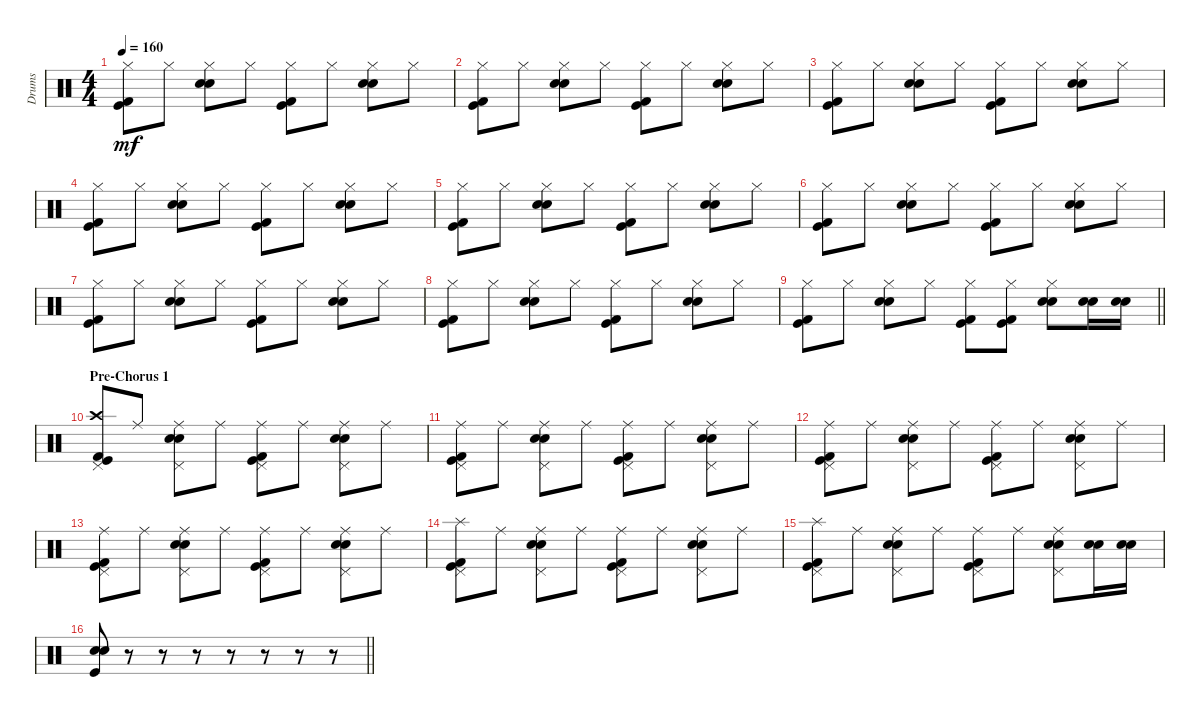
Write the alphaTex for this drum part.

\track ("Drums" "Drums") {instrument percussion}
\staff {score}
\articulation defaults
\ts (4 4)
\tempo 160
\clef neutral
\ks c
("Hi-Hat (closed)" "Kick (hit) 2" "Kick (hit)").8{dy mf} "Hi-Hat (closed)".8 ("Hi-Hat (closed)" "Snare (hit) 2" "Electric Snare (hit)").8 "Hi-Hat (closed)".8 ("Hi-Hat (closed)" "Kick (hit) 2" "Kick (hit)").8 "Hi-Hat (closed)".8 ("Hi-Hat (closed)" "Snare (hit) 2" "Electric Snare (hit)").8 "Hi-Hat (closed)".8 |
("Hi-Hat (closed)" "Kick (hit) 2" "Kick (hit)").8 "Hi-Hat (closed)".8 ("Hi-Hat (closed)" "Snare (hit) 2" "Electric Snare (hit)").8 "Hi-Hat (closed)".8 ("Hi-Hat (closed)" "Kick (hit) 2" "Kick (hit)").8 "Hi-Hat (closed)".8 ("Hi-Hat (closed)" "Snare (hit) 2" "Electric Snare (hit)").8 "Hi-Hat (closed)".8 |
("Hi-Hat (closed)" "Kick (hit) 2" "Kick (hit)").8 "Hi-Hat (closed)".8 ("Hi-Hat (closed)" "Snare (hit) 2" "Electric Snare (hit)").8 "Hi-Hat (closed)".8 ("Hi-Hat (closed)" "Kick (hit) 2" "Kick (hit)").8 "Hi-Hat (closed)".8 ("Hi-Hat (closed)" "Snare (hit) 2" "Electric Snare (hit)").8 "Hi-Hat (closed)".8 |
("Hi-Hat (closed)" "Kick (hit) 2" "Kick (hit)").8 "Hi-Hat (closed)".8 ("Hi-Hat (closed)" "Snare (hit) 2" "Electric Snare (hit)").8 "Hi-Hat (closed)".8 ("Hi-Hat (closed)" "Kick (hit) 2" "Kick (hit)").8 "Hi-Hat (closed)".8 ("Hi-Hat (closed)" "Snare (hit) 2" "Electric Snare (hit)").8 "Hi-Hat (closed)".8 |
("Hi-Hat (closed)" "Kick (hit) 2" "Kick (hit)").8 "Hi-Hat (closed)".8 ("Hi-Hat (closed)" "Snare (hit) 2" "Electric Snare (hit)").8 "Hi-Hat (closed)".8 ("Hi-Hat (closed)" "Kick (hit) 2" "Kick (hit)").8 "Hi-Hat (closed)".8 ("Hi-Hat (closed)" "Snare (hit) 2" "Electric Snare (hit)").8 "Hi-Hat (closed)".8 |
("Hi-Hat (closed)" "Kick (hit) 2" "Kick (hit)").8 "Hi-Hat (closed)".8 ("Hi-Hat (closed)" "Snare (hit) 2" "Electric Snare (hit)").8 "Hi-Hat (closed)".8 ("Hi-Hat (closed)" "Kick (hit) 2" "Kick (hit)").8 "Hi-Hat (closed)".8 ("Hi-Hat (closed)" "Snare (hit) 2" "Electric Snare (hit)").8 "Hi-Hat (closed)".8 |
("Hi-Hat (closed)" "Kick (hit) 2" "Kick (hit)").8 "Hi-Hat (closed)".8 ("Hi-Hat (closed)" "Snare (hit) 2" "Electric Snare (hit)").8 "Hi-Hat (closed)".8 ("Hi-Hat (closed)" "Kick (hit) 2" "Kick (hit)").8 "Hi-Hat (closed)".8 ("Hi-Hat (closed)" "Snare (hit) 2" "Electric Snare (hit)").8 "Hi-Hat (closed)".8 |
("Hi-Hat (closed)" "Kick (hit) 2" "Kick (hit)").8 "Hi-Hat (closed)".8 ("Hi-Hat (closed)" "Snare (hit) 2" "Electric Snare (hit)").8 "Hi-Hat (closed)".8 ("Hi-Hat (closed)" "Kick (hit) 2" "Kick (hit)").8 "Hi-Hat (closed)".8 ("Hi-Hat (closed)" "Snare (hit) 2" "Electric Snare (hit)").8 "Hi-Hat (closed)".8 |
\barLineRight lightlight
("Hi-Hat (closed)" "Kick (hit) 2" "Kick (hit)").8 "Hi-Hat (closed)".8 ("Hi-Hat (closed)" "Snare (hit) 2" "Electric Snare (hit)").8 "Hi-Hat (closed)".8 ("Hi-Hat (closed)" "Kick (hit) 2" "Kick (hit)").8 ("Hi-Hat (closed)" "Kick (hit) 2" "Kick (hit)").8 ("Hi-Hat (closed)" "Snare (hit) 2" "Electric Snare (hit)").8 ("Snare (hit) 2" "Electric Snare (hit)").16 ("Snare (hit) 2" "Electric Snare (hit)").16 |
\section ("" "Pre-Chorus 1")
("Crash high (hit)" "Pedal Hi-Hat (hit)" "Kick (hit) 2" "Kick (hit)").8 "Ride (middle)".8 ("Ride (middle)" "Pedal Hi-Hat (hit)" "Snare (hit) 2" "Electric Snare (hit)").8 "Ride (middle)".8 ("Ride (middle)" "Pedal Hi-Hat (hit)" "Kick (hit) 2" "Kick (hit)").8 "Ride (middle)".8 ("Ride (middle)" "Pedal Hi-Hat (hit)" "Snare (hit) 2" "Electric Snare (hit)").8 "Ride (middle)".8 |
("Ride (middle)" "Pedal Hi-Hat (hit)" "Kick (hit) 2" "Kick (hit)").8 "Ride (middle)".8 ("Ride (middle)" "Pedal Hi-Hat (hit)" "Snare (hit) 2" "Electric Snare (hit)").8 "Ride (middle)".8 ("Ride (middle)" "Pedal Hi-Hat (hit)" "Kick (hit) 2" "Kick (hit)").8 "Ride (middle)".8 ("Ride (middle)" "Pedal Hi-Hat (hit)" "Snare (hit) 2" "Electric Snare (hit)").8 "Ride (middle)".8 |
("Ride (middle)" "Pedal Hi-Hat (hit)" "Kick (hit) 2" "Kick (hit)").8 "Ride (middle)".8 ("Ride (middle)" "Pedal Hi-Hat (hit)" "Snare (hit) 2" "Electric Snare (hit)").8 "Ride (middle)".8 ("Ride (middle)" "Pedal Hi-Hat (hit)" "Kick (hit) 2" "Kick (hit)").8 "Ride (middle)".8 ("Ride (middle)" "Pedal Hi-Hat (hit)" "Snare (hit) 2" "Electric Snare (hit)").8 "Ride (middle)".8 |
("Ride (middle)" "Pedal Hi-Hat (hit)" "Kick (hit) 2" "Kick (hit)").8 "Ride (middle)".8 ("Ride (middle)" "Pedal Hi-Hat (hit)" "Snare (hit) 2" "Electric Snare (hit)").8 "Ride (middle)".8 ("Ride (middle)" "Pedal Hi-Hat (hit)" "Kick (hit) 2" "Kick (hit)").8 "Ride (middle)".8 ("Ride (middle)" "Pedal Hi-Hat (hit)" "Snare (hit) 2" "Electric Snare (hit)").8 "Ride (middle)".8 |
("Splash (hit)" "Pedal Hi-Hat (hit)" "Kick (hit) 2" "Kick (hit)").8 "Ride (middle)".8 ("Ride (middle)" "Pedal Hi-Hat (hit)" "Snare (hit) 2" "Electric Snare (hit)").8 "Ride (middle)".8 ("Ride (middle)" "Pedal Hi-Hat (hit)" "Kick (hit) 2" "Kick (hit)").8 "Ride (middle)".8 ("Ride (middle)" "Pedal Hi-Hat (hit)" "Snare (hit) 2" "Electric Snare (hit)").8 "Ride (middle)".8 |
("Splash (hit)" "Pedal Hi-Hat (hit)" "Kick (hit) 2" "Kick (hit)").8 "Ride (middle)".8 ("Ride (middle)" "Pedal Hi-Hat (hit)" "Snare (hit) 2" "Electric Snare (hit)").8 "Ride (middle)".8 ("Ride (middle)" "Pedal Hi-Hat (hit)" "Kick (hit) 2" "Kick (hit)").8 "Ride (middle)".8 ("Ride (middle)" "Pedal Hi-Hat (hit)" "Snare (hit) 2" "Electric Snare (hit)").8 ("Snare (hit) 2" "Electric Snare (hit)").16 ("Snare (hit) 2" "Electric Snare (hit)").16 |
\barLineRight lightlight
("Snare (hit) 2" "Electric Snare (hit)" "Kick (hit)").8 r.8 r.8 r.8 r.8 r.8 r.8 r.8
